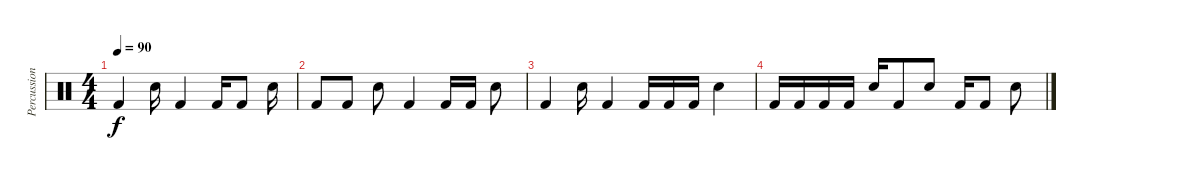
\track ("Percussion" "Percussion") {instrument percussion}
\staff {score}
\articulation defaults
\ts (4 4)
\tempo 90
\clef neutral
\ks c "Kick (hit) 2".4{dy f} "Hand Clap (hit)".16 "Kick (hit) 2".4 "Kick (hit) 2".16 "Kick (hit) 2".8 "Hand Clap (hit)".16
|
"Kick (hit) 2".8 "Kick (hit) 2".8 "Hand Clap (hit)".8 "Kick (hit) 2".4 "Kick (hit) 2".16 "Kick (hit) 2".16 "Hand Clap (hit)".8 |
"Kick (hit) 2".4 "Hand Clap (hit)".16 "Kick (hit) 2".4 "Kick (hit) 2".16 "Kick (hit) 2".16 "Kick (hit) 2".16 "Hand Clap (hit)".4 |
"Kick (hit) 2".16 "Kick (hit) 2".16 "Kick (hit) 2".16 "Kick (hit) 2".16 "Hand Clap (hit)".16 "Kick (hit) 2".8 "Hand Clap (hit)".8 "Kick (hit) 2".16 "Kick (hit) 2".8 "Hand Clap (hit)".8
